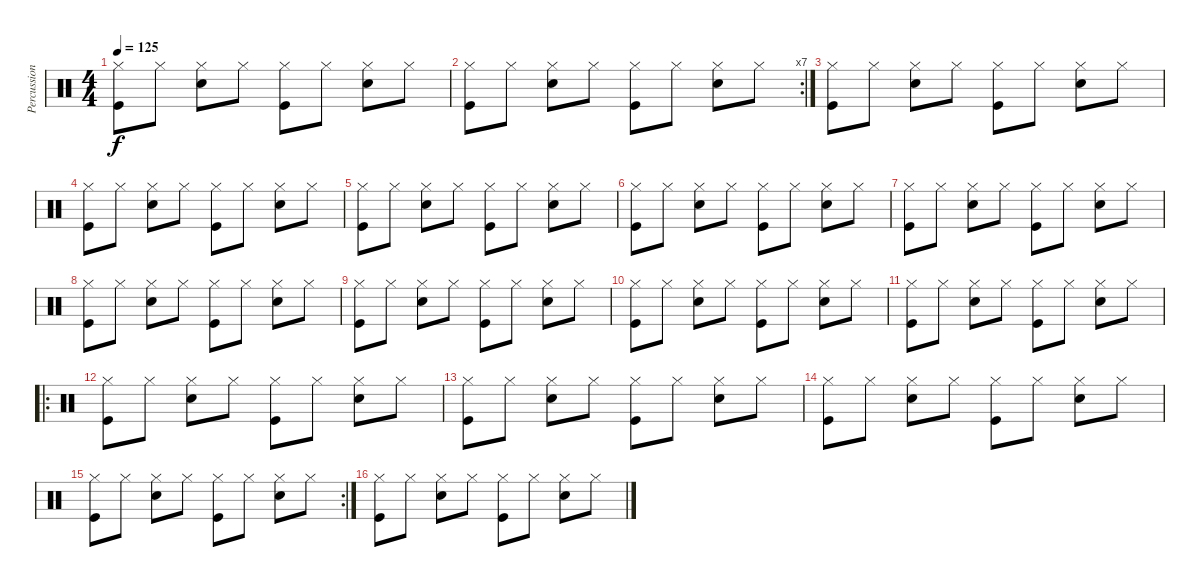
\track ("Percussion" "Percussion") {instrument percussion}
\staff {score}
\articulation defaults
\ts (4 4)
\tempo 125
\clef neutral
\ks c
("Hi-Hat (closed)" "Kick (hit)").8{dy f} "Hi-Hat (closed)".8 ("Hi-Hat (closed)" "Snare (hit) 2").8 "Hi-Hat (closed)".8 ("Hi-Hat (closed)" "Kick (hit)").8 "Hi-Hat (closed)".8 ("Hi-Hat (closed)" "Snare (hit) 2").8 "Hi-Hat (closed)".8 |
\rc 7
("Hi-Hat (closed)" "Kick (hit)").8 "Hi-Hat (closed)".8 ("Hi-Hat (closed)" "Snare (hit) 2").8 "Hi-Hat (closed)".8 ("Hi-Hat (closed)" "Kick (hit)").8 "Hi-Hat (closed)".8 ("Hi-Hat (closed)" "Snare (hit) 2").8 "Hi-Hat (closed)".8 |
("Hi-Hat (closed)" "Kick (hit)").8 "Hi-Hat (closed)".8 ("Hi-Hat (closed)" "Snare (hit) 2").8 "Hi-Hat (closed)".8 ("Hi-Hat (closed)" "Kick (hit)").8 "Hi-Hat (closed)".8 ("Hi-Hat (closed)" "Snare (hit) 2").8 "Hi-Hat (closed)".8 |
("Hi-Hat (closed)" "Kick (hit)").8 "Hi-Hat (closed)".8 ("Hi-Hat (closed)" "Snare (hit) 2").8 "Hi-Hat (closed)".8 ("Hi-Hat (closed)" "Kick (hit)").8 "Hi-Hat (closed)".8 ("Hi-Hat (closed)" "Snare (hit) 2").8 "Hi-Hat (closed)".8 |
("Hi-Hat (closed)" "Kick (hit)").8 "Hi-Hat (closed)".8 ("Hi-Hat (closed)" "Snare (hit) 2").8 "Hi-Hat (closed)".8 ("Hi-Hat (closed)" "Kick (hit)").8 "Hi-Hat (closed)".8 ("Hi-Hat (closed)" "Snare (hit) 2").8 "Hi-Hat (closed)".8 |
("Hi-Hat (closed)" "Kick (hit)").8 "Hi-Hat (closed)".8 ("Hi-Hat (closed)" "Snare (hit) 2").8 "Hi-Hat (closed)".8 ("Hi-Hat (closed)" "Kick (hit)").8 "Hi-Hat (closed)".8 ("Hi-Hat (closed)" "Snare (hit) 2").8 "Hi-Hat (closed)".8 |
("Hi-Hat (closed)" "Kick (hit)").8 "Hi-Hat (closed)".8 ("Hi-Hat (closed)" "Snare (hit) 2").8 "Hi-Hat (closed)".8 ("Hi-Hat (closed)" "Kick (hit)").8 "Hi-Hat (closed)".8 ("Hi-Hat (closed)" "Snare (hit) 2").8 "Hi-Hat (closed)".8 |
("Hi-Hat (closed)" "Kick (hit)").8 "Hi-Hat (closed)".8 ("Hi-Hat (closed)" "Snare (hit) 2").8 "Hi-Hat (closed)".8 ("Hi-Hat (closed)" "Kick (hit)").8 "Hi-Hat (closed)".8 ("Hi-Hat (closed)" "Snare (hit) 2").8 "Hi-Hat (closed)".8 |
("Hi-Hat (closed)" "Kick (hit)").8 "Hi-Hat (closed)".8 ("Hi-Hat (closed)" "Snare (hit) 2").8 "Hi-Hat (closed)".8 ("Hi-Hat (closed)" "Kick (hit)").8 "Hi-Hat (closed)".8 ("Hi-Hat (closed)" "Snare (hit) 2").8 "Hi-Hat (closed)".8 |
("Hi-Hat (closed)" "Kick (hit)").8 "Hi-Hat (closed)".8 ("Hi-Hat (closed)" "Snare (hit) 2").8 "Hi-Hat (closed)".8 ("Hi-Hat (closed)" "Kick (hit)").8 "Hi-Hat (closed)".8 ("Hi-Hat (closed)" "Snare (hit) 2").8 "Hi-Hat (closed)".8 |
("Hi-Hat (closed)" "Kick (hit)").8 "Hi-Hat (closed)".8 ("Hi-Hat (closed)" "Snare (hit) 2").8 "Hi-Hat (closed)".8 ("Hi-Hat (closed)" "Kick (hit)").8 "Hi-Hat (closed)".8 ("Hi-Hat (closed)" "Snare (hit) 2").8 "Hi-Hat (closed)".8 |
\ro
("Hi-Hat (closed)" "Kick (hit)").8 "Hi-Hat (closed)".8 ("Hi-Hat (closed)" "Snare (hit) 2").8 "Hi-Hat (closed)".8 ("Hi-Hat (closed)" "Kick (hit)").8 "Hi-Hat (closed)".8 ("Hi-Hat (closed)" "Snare (hit) 2").8 "Hi-Hat (closed)".8 |
("Hi-Hat (closed)" "Kick (hit)").8 "Hi-Hat (closed)".8 ("Hi-Hat (closed)" "Snare (hit) 2").8 "Hi-Hat (closed)".8 ("Hi-Hat (closed)" "Kick (hit)").8 "Hi-Hat (closed)".8 ("Hi-Hat (closed)" "Snare (hit) 2").8 "Hi-Hat (closed)".8 |
("Hi-Hat (closed)" "Kick (hit)").8 "Hi-Hat (closed)".8 ("Hi-Hat (closed)" "Snare (hit) 2").8 "Hi-Hat (closed)".8 ("Hi-Hat (closed)" "Kick (hit)").8 "Hi-Hat (closed)".8 ("Hi-Hat (closed)" "Snare (hit) 2").8 "Hi-Hat (closed)".8 |
\rc 2
("Hi-Hat (closed)" "Kick (hit)").8 "Hi-Hat (closed)".8 ("Hi-Hat (closed)" "Snare (hit) 2").8 "Hi-Hat (closed)".8 ("Hi-Hat (closed)" "Kick (hit)").8 "Hi-Hat (closed)".8 ("Hi-Hat (closed)" "Snare (hit) 2").8 "Hi-Hat (closed)".8 |
("Hi-Hat (closed)" "Kick (hit)").8 "Hi-Hat (closed)".8 ("Hi-Hat (closed)" "Snare (hit) 2").8 "Hi-Hat (closed)".8 ("Hi-Hat (closed)" "Kick (hit)").8 "Hi-Hat (closed)".8 ("Hi-Hat (closed)" "Snare (hit) 2").8 "Hi-Hat (closed)".8
